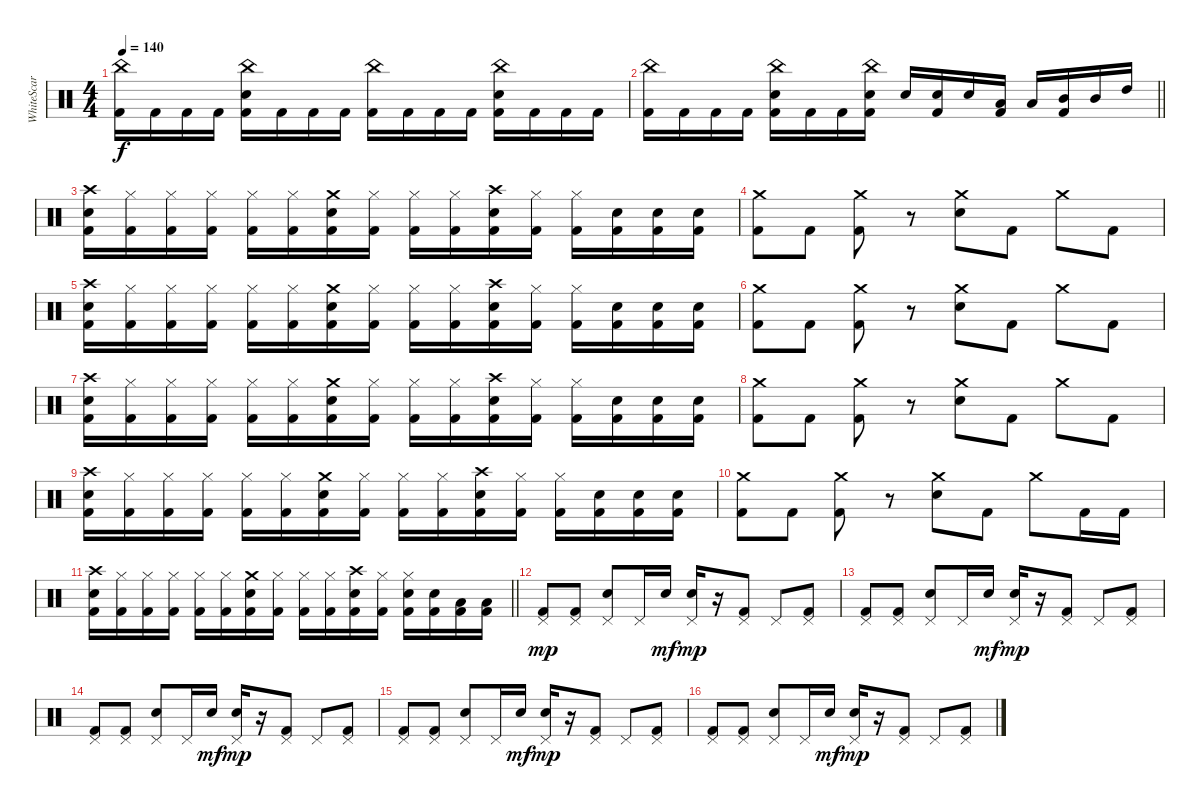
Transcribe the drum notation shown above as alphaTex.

\track ("WhiteScar " "WhiteScar ") {instrument percussion}
\staff {score}
\articulation defaults
\ts (4 4)
\tempo 140
\clef neutral
\ks c
("China (hit)" "Kick (hit) 2").16{dy f} "Kick (hit) 2".16 "Kick (hit) 2".16 "Kick (hit) 2".16 ("China (hit)" "Snare (hit) 2" "Kick (hit) 2").16 "Kick (hit) 2".16 "Kick (hit) 2".16 "Kick (hit) 2".16 ("China (hit)" "Kick (hit) 2").16 "Kick (hit) 2".16 "Kick (hit) 2".16 "Kick (hit) 2".16 ("China (hit)" "Snare (hit) 2" "Kick (hit) 2").16 "Kick (hit) 2".16 "Kick (hit) 2".16 "Kick (hit) 2".16 |
\barLineRight lightlight
("China (hit)" "Kick (hit) 2").16 "Kick (hit) 2".16 "Kick (hit) 2".16 "Kick (hit) 2".16 ("China (hit)" "Snare (hit) 2" "Kick (hit) 2").16 "Kick (hit) 2".16 "Kick (hit) 2".16 ("China (hit)" "Snare (hit) 2" "Kick (hit) 2").16 "Snare (hit) 2".16 ("Snare (hit) 2" "Kick (hit) 2").16 "Snare (hit) 2".16 ("Low Tom (hit)" "Kick (hit) 2").16 "Low Tom (hit)".16 ("Mid Tom (hit)" "Kick (hit) 2").16 "Mid Tom (hit)".16 "High Tom (hit)".16 |
("Crash high (hit)" "Snare (hit) 2" "Kick (hit) 2").16 ("Hi-Hat (closed)" "Kick (hit) 2").16 ("Hi-Hat (closed)" "Kick (hit) 2").16 ("Hi-Hat (closed)" "Kick (hit) 2").16 ("Hi-Hat (closed)" "Kick (hit) 2").16 ("Hi-Hat (closed)" "Kick (hit) 2").16 ("Crash medium (hit)" "Snare (hit) 2" "Kick (hit) 2").16 ("Hi-Hat (closed)" "Kick (hit) 2").16 ("Hi-Hat (closed)" "Kick (hit) 2").16 ("Hi-Hat (closed)" "Kick (hit) 2").16 ("Crash high (hit)" "Snare (hit) 2" "Kick (hit) 2").16 ("Hi-Hat (closed)" "Kick (hit) 2").16 ("Hi-Hat (closed)" "Kick (hit) 2").16 ("Snare (hit) 2" "Kick (hit) 2").16 ("Snare (hit) 2" "Kick (hit) 2").16 ("Snare (hit) 2" "Kick (hit) 2").16 |
("Crash medium (hit)" "Kick (hit) 2").8 "Kick (hit) 2".8 ("Crash medium (hit)" "Kick (hit) 2").8 r.8 ("Crash medium (hit)" "Snare (hit) 2").8 "Kick (hit) 2".8 "Crash medium (hit)".8 "Kick (hit) 2".8 |
("Crash high (hit)" "Snare (hit) 2" "Kick (hit) 2").16 ("Hi-Hat (closed)" "Kick (hit) 2").16 ("Hi-Hat (closed)" "Kick (hit) 2").16 ("Hi-Hat (closed)" "Kick (hit) 2").16 ("Hi-Hat (closed)" "Kick (hit) 2").16 ("Hi-Hat (closed)" "Kick (hit) 2").16 ("Crash medium (hit)" "Snare (hit) 2" "Kick (hit) 2").16 ("Hi-Hat (closed)" "Kick (hit) 2").16 ("Hi-Hat (closed)" "Kick (hit) 2").16 ("Hi-Hat (closed)" "Kick (hit) 2").16 ("Crash high (hit)" "Snare (hit) 2" "Kick (hit) 2").16 ("Hi-Hat (closed)" "Kick (hit) 2").16 ("Hi-Hat (closed)" "Kick (hit) 2").16 ("Snare (hit) 2" "Kick (hit) 2").16 ("Snare (hit) 2" "Kick (hit) 2").16 ("Snare (hit) 2" "Kick (hit) 2").16 |
("Crash medium (hit)" "Kick (hit) 2").8 "Kick (hit) 2".8 ("Crash medium (hit)" "Kick (hit) 2").8 r.8 ("Crash medium (hit)" "Snare (hit) 2").8 "Kick (hit) 2".8 "Crash medium (hit)".8 "Kick (hit) 2".8 |
("Crash high (hit)" "Snare (hit) 2" "Kick (hit) 2").16 ("Hi-Hat (closed)" "Kick (hit) 2").16 ("Hi-Hat (closed)" "Kick (hit) 2").16 ("Hi-Hat (closed)" "Kick (hit) 2").16 ("Hi-Hat (closed)" "Kick (hit) 2").16 ("Hi-Hat (closed)" "Kick (hit) 2").16 ("Crash medium (hit)" "Snare (hit) 2" "Kick (hit) 2").16 ("Hi-Hat (closed)" "Kick (hit) 2").16 ("Hi-Hat (closed)" "Kick (hit) 2").16 ("Hi-Hat (closed)" "Kick (hit) 2").16 ("Crash high (hit)" "Snare (hit) 2" "Kick (hit) 2").16 ("Hi-Hat (closed)" "Kick (hit) 2").16 ("Hi-Hat (closed)" "Kick (hit) 2").16 ("Snare (hit) 2" "Kick (hit) 2").16 ("Snare (hit) 2" "Kick (hit) 2").16 ("Snare (hit) 2" "Kick (hit) 2").16 |
("Crash medium (hit)" "Kick (hit) 2").8 "Kick (hit) 2".8 ("Crash medium (hit)" "Kick (hit) 2").8 r.8 ("Crash medium (hit)" "Snare (hit) 2").8 "Kick (hit) 2".8 "Crash medium (hit)".8 "Kick (hit) 2".8 |
("Crash high (hit)" "Snare (hit) 2" "Kick (hit) 2").16 ("Hi-Hat (closed)" "Kick (hit) 2").16 ("Hi-Hat (closed)" "Kick (hit) 2").16 ("Hi-Hat (closed)" "Kick (hit) 2").16 ("Hi-Hat (closed)" "Kick (hit) 2").16 ("Hi-Hat (closed)" "Kick (hit) 2").16 ("Crash medium (hit)" "Snare (hit) 2" "Kick (hit) 2").16 ("Hi-Hat (closed)" "Kick (hit) 2").16 ("Hi-Hat (closed)" "Kick (hit) 2").16 ("Hi-Hat (closed)" "Kick (hit) 2").16 ("Crash high (hit)" "Snare (hit) 2" "Kick (hit) 2").16 ("Hi-Hat (closed)" "Kick (hit) 2").16 ("Hi-Hat (closed)" "Kick (hit) 2").16 ("Snare (hit) 2" "Kick (hit) 2").16 ("Snare (hit) 2" "Kick (hit) 2").16 ("Snare (hit) 2" "Kick (hit) 2").16 |
("Crash medium (hit)" "Kick (hit) 2").8 "Kick (hit) 2".8 ("Crash medium (hit)" "Kick (hit) 2").8 r.8 ("Crash medium (hit)" "Snare (hit) 2").8 "Kick (hit) 2".8 "Crash medium (hit)".8 "Kick (hit) 2".16 "Kick (hit) 2".16 |
\barLineRight lightlight
("Crash high (hit)" "Snare (hit) 2" "Kick (hit) 2").16 ("Hi-Hat (closed)" "Kick (hit) 2").16 ("Hi-Hat (closed)" "Kick (hit) 2").16 ("Hi-Hat (closed)" "Kick (hit) 2").16 ("Hi-Hat (closed)" "Kick (hit) 2").16 ("Hi-Hat (closed)" "Kick (hit) 2").16 ("Crash medium (hit)" "Snare (hit) 2" "Kick (hit) 2").16 ("Hi-Hat (closed)" "Kick (hit) 2").16 ("Hi-Hat (closed)" "Kick (hit) 2").16 ("Hi-Hat (closed)" "Kick (hit) 2").16 ("Crash high (hit)" "Snare (hit) 2" "Kick (hit) 2").16 ("Hi-Hat (closed)" "Kick (hit) 2").16 ("Snare (hit) 2" "Hi-Hat (closed)" "Kick (hit) 2").16 ("Snare (hit) 2" "Kick (hit) 2").16 ("Low Tom (hit)" "Kick (hit) 2").16 ("Low Tom (hit)" "Kick (hit) 2").16 |
("Pedal Hi-Hat (hit)" "Kick (hit) 2").8{dy mp} ("Pedal Hi-Hat (hit)" "Kick (hit) 2").8 ("Pedal Hi-Hat (hit)" "Snare (hit) 2").8 "Pedal Hi-Hat (hit)".16 "Snare (hit) 2".16{dy mf} ("Pedal Hi-Hat (hit)" "Snare (hit) 2").16{dy mp} r.16 ("Pedal Hi-Hat (hit)" "Kick (hit) 2").8 "Pedal Hi-Hat (hit)".8 ("Pedal Hi-Hat (hit)" "Kick (hit) 2").8 |
("Pedal Hi-Hat (hit)" "Kick (hit) 2").8 ("Pedal Hi-Hat (hit)" "Kick (hit) 2").8 ("Pedal Hi-Hat (hit)" "Snare (hit) 2").8 "Pedal Hi-Hat (hit)".16 "Snare (hit) 2".16{dy mf} ("Pedal Hi-Hat (hit)" "Snare (hit) 2").16{dy mp} r.16 ("Pedal Hi-Hat (hit)" "Kick (hit) 2").8 "Pedal Hi-Hat (hit)".8 ("Pedal Hi-Hat (hit)" "Kick (hit) 2").8 |
("Pedal Hi-Hat (hit)" "Kick (hit) 2").8 ("Pedal Hi-Hat (hit)" "Kick (hit) 2").8 ("Pedal Hi-Hat (hit)" "Snare (hit) 2").8 "Pedal Hi-Hat (hit)".16 "Snare (hit) 2".16{dy mf} ("Pedal Hi-Hat (hit)" "Snare (hit) 2").16{dy mp} r.16 ("Pedal Hi-Hat (hit)" "Kick (hit) 2").8 "Pedal Hi-Hat (hit)".8 ("Pedal Hi-Hat (hit)" "Kick (hit) 2").8 |
("Pedal Hi-Hat (hit)" "Kick (hit) 2").8 ("Pedal Hi-Hat (hit)" "Kick (hit) 2").8 ("Pedal Hi-Hat (hit)" "Snare (hit) 2").8 "Pedal Hi-Hat (hit)".16 "Snare (hit) 2".16{dy mf} ("Pedal Hi-Hat (hit)" "Snare (hit) 2").16{dy mp} r.16 ("Pedal Hi-Hat (hit)" "Kick (hit) 2").8 "Pedal Hi-Hat (hit)".8 ("Pedal Hi-Hat (hit)" "Kick (hit) 2").8 |
("Pedal Hi-Hat (hit)" "Kick (hit) 2").8 ("Pedal Hi-Hat (hit)" "Kick (hit) 2").8 ("Pedal Hi-Hat (hit)" "Snare (hit) 2").8 "Pedal Hi-Hat (hit)".16 "Snare (hit) 2".16{dy mf} ("Pedal Hi-Hat (hit)" "Snare (hit) 2").16{dy mp} r.16 ("Pedal Hi-Hat (hit)" "Kick (hit) 2").8 "Pedal Hi-Hat (hit)".8 ("Pedal Hi-Hat (hit)" "Kick (hit) 2").8
